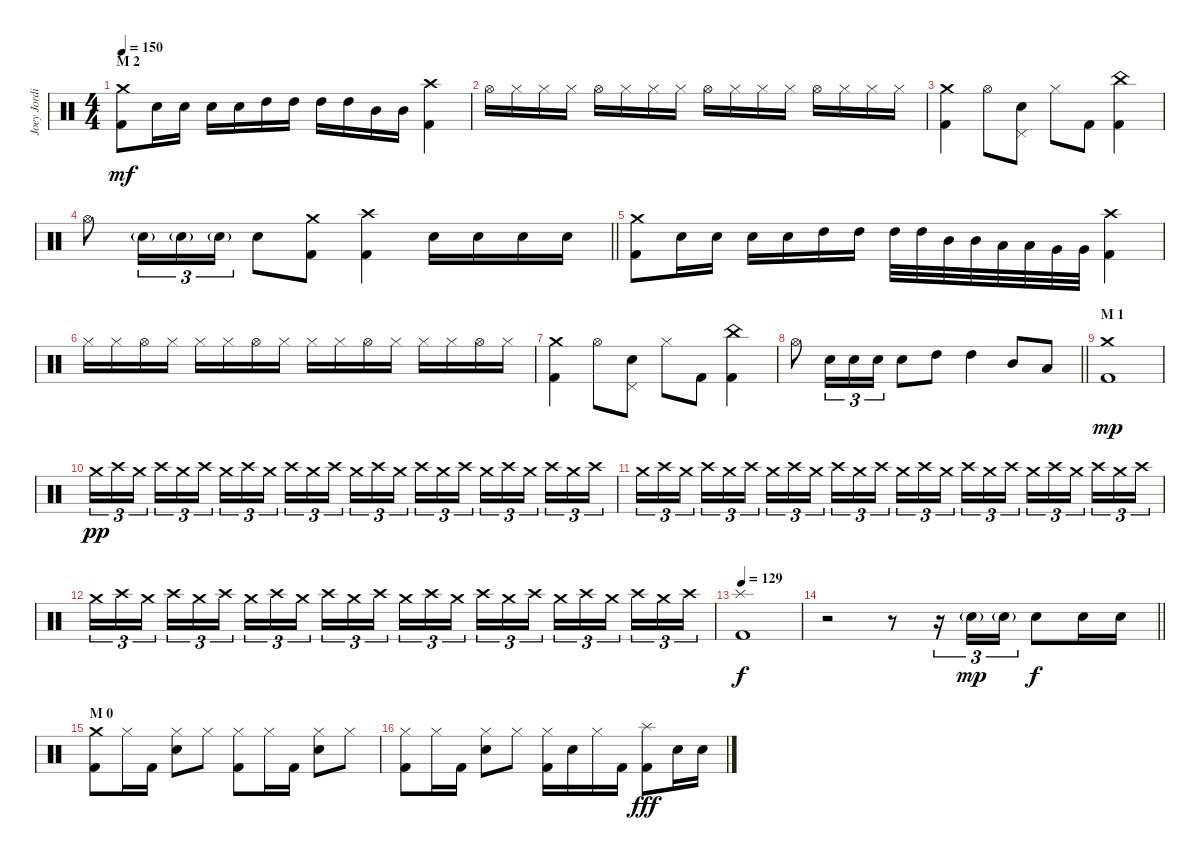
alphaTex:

\track ("Joey Jordison" "Joey Jordi") {instrument percussion}
\staff {score}
\articulation defaults
\ts (4 4)
\section ("" "M 2")
\tempo 150
\clef neutral
\ks c
("Crash medium (hit)" "Kick (hit) 2").8{dy mf} "Electric Snare (hit)".16 "Electric Snare (hit)".16 "Electric Snare (hit)".16 "Electric Snare (hit)".16 "High Tom (hit)".16 "High Tom (hit)".16 "High Tom (hit)".16 "High Tom (hit)".16 "Mid Tom (hit)".16 "Mid Tom (hit)".16 ("Crash high (hit)" "Kick (hit) 2").4 |
"Hi-Hat (open)".16 "Hi-Hat (closed)".16 "Hi-Hat (closed)".16 "Hi-Hat (closed)".16 "Hi-Hat (open)".16 "Hi-Hat (closed)".16 "Hi-Hat (closed)".16 "Hi-Hat (closed)".16 "Hi-Hat (open)".16 "Hi-Hat (closed)".16 "Hi-Hat (closed)".16 "Hi-Hat (closed)".16 "Hi-Hat (open)".16 "Hi-Hat (closed)".16 "Hi-Hat (closed)".16 "Hi-Hat (closed)".16 |
("Crash medium (hit)" "Kick (hit) 2").4 "Hi-Hat (open)".8 ("Electric Snare (hit)" "Pedal Hi-Hat (hit)").8 "Hi-Hat (closed)".8 "Kick (hit) 2".8 ("China (hit)" "Kick (hit) 2").4 |
\barLineRight lightlight "Hi-Hat (open)".8 "Electric Snare (hit)"{g}.16{tu (3 2)} "Electric Snare (hit)"{g}.16{tu (3 2)} "Electric Snare (hit)"{g}.16{tu (3 2)} "Electric Snare (hit)".8
("Crash medium (hit)" "Kick (hit) 2").8 ("Crash high (hit)" "Kick (hit) 2").4 "Electric Snare (hit)".16 "Electric Snare (hit)".16 "Electric Snare (hit)".16 "Electric Snare (hit)".16 |
("Crash medium (hit)" "Kick (hit) 2").8 "Electric Snare (hit)".16 "Electric Snare (hit)".16 "Electric Snare (hit)".16 "Electric Snare (hit)".16 "High Tom (hit)".16 "High Tom (hit)".16 "High Tom (hit)".32 "High Tom (hit)".32 "Mid Tom (hit)".32 "Mid Tom (hit)".32 "Low Tom (hit)".32 "Low Tom (hit)".32 "Very Low Tom (hit)".32 "Very Low Tom (hit)".32 ("Crash high (hit)" "Kick (hit) 2").4 |
"Hi-Hat (closed)".16 "Hi-Hat (closed)".16 "Hi-Hat (open)".16 "Hi-Hat (closed)".16 "Hi-Hat (closed)".16 "Hi-Hat (closed)".16 "Hi-Hat (open)".16 "Hi-Hat (closed)".16 "Hi-Hat (closed)".16 "Hi-Hat (closed)".16 "Hi-Hat (open)".16 "Hi-Hat (closed)".16 "Hi-Hat (closed)".16 "Hi-Hat (closed)".16 "Hi-Hat (open)".16 "Hi-Hat (closed)".16 |
("Crash medium (hit)" "Kick (hit) 2").4 "Hi-Hat (open)".8 ("Electric Snare (hit)" "Pedal Hi-Hat (hit)").8 "Hi-Hat (closed)".8 "Kick (hit) 2".8 ("China (hit)" "Kick (hit) 2").4 |
\barLineRight lightlight "Hi-Hat (open)".8 "Electric Snare (hit)".16{tu (3 2)} "Electric Snare (hit)".16{tu (3 2)} "Electric Snare (hit)".16{tu (3 2)} "Electric Snare (hit)".8 "High Tom (hit)".8 "High Tom (hit)".4 "Mid Tom (hit)".8 "Low Tom (hit)".8
|
\section ("" "M 1")
("Crash medium (hit)" "Kick (hit) 2").1{dy mp} |
"Crash medium (hit)".16{tu (3 2) dy pp volume 7} "Crash high (hit)".16{tu (3 2) volume 13} "Crash medium (hit)".16{tu (3 2) beam splitsecondary} "Crash high (hit)".16{tu (3 2)} "Crash medium (hit)".16{tu (3 2)} "Crash high (hit)".16{tu (3 2)} "Crash medium (hit)".16{tu (3 2)} "Crash high (hit)".16{tu (3 2)} "Crash medium (hit)".16{tu (3 2) beam splitsecondary} "Crash high (hit)".16{tu (3 2)} "Crash medium (hit)".16{tu (3 2)} "Crash high (hit)".16{tu (3 2)} "Crash medium (hit)".16{tu (3 2)} "Crash high (hit)".16{tu (3 2)} "Crash medium (hit)".16{tu (3 2) beam splitsecondary} "Crash high (hit)".16{tu (3 2)} "Crash medium (hit)".16{tu (3 2)} "Crash high (hit)".16{tu (3 2)} "Crash medium (hit)".16{tu (3 2)} "Crash high (hit)".16{tu (3 2)} "Crash medium (hit)".16{tu (3 2) beam splitsecondary} "Crash high (hit)".16{tu (3 2)} "Crash medium (hit)".16{tu (3 2)} "Crash high (hit)".16{tu (3 2)} |
"Crash medium (hit)".16{tu (3 2)} "Crash high (hit)".16{tu (3 2)} "Crash medium (hit)".16{tu (3 2) beam splitsecondary} "Crash high (hit)".16{tu (3 2)} "Crash medium (hit)".16{tu (3 2)} "Crash high (hit)".16{tu (3 2)} "Crash medium (hit)".16{tu (3 2)} "Crash high (hit)".16{tu (3 2)} "Crash medium (hit)".16{tu (3 2) beam splitsecondary} "Crash high (hit)".16{tu (3 2)} "Crash medium (hit)".16{tu (3 2)} "Crash high (hit)".16{tu (3 2)} "Crash medium (hit)".16{tu (3 2)} "Crash high (hit)".16{tu (3 2)} "Crash medium (hit)".16{tu (3 2) beam splitsecondary} "Crash high (hit)".16{tu (3 2)} "Crash medium (hit)".16{tu (3 2)} "Crash high (hit)".16{tu (3 2)} "Crash medium (hit)".16{tu (3 2)} "Crash high (hit)".16{tu (3 2)} "Crash medium (hit)".16{tu (3 2) beam splitsecondary} "Crash high (hit)".16{tu (3 2)} "Crash medium (hit)".16{tu (3 2)} "Crash high (hit)".16{tu (3 2)} |
"Crash medium (hit)".16{tu (3 2)} "Crash high (hit)".16{tu (3 2)} "Crash medium (hit)".16{tu (3 2) beam splitsecondary} "Crash high (hit)".16{tu (3 2)} "Crash medium (hit)".16{tu (3 2)} "Crash high (hit)".16{tu (3 2)} "Crash medium (hit)".16{tu (3 2)} "Crash high (hit)".16{tu (3 2)} "Crash medium (hit)".16{tu (3 2) beam splitsecondary} "Crash high (hit)".16{tu (3 2)} "Crash medium (hit)".16{tu (3 2)} "Crash high (hit)".16{tu (3 2)} "Crash medium (hit)".16{tu (3 2)} "Crash high (hit)".16{tu (3 2)} "Crash medium (hit)".16{tu (3 2) beam splitsecondary} "Crash high (hit)".16{tu (3 2)} "Crash medium (hit)".16{tu (3 2)} "Crash high (hit)".16{tu (3 2)} "Crash medium (hit)".16{tu (3 2)} "Crash high (hit)".16{tu (3 2)} "Crash medium (hit)".16{tu (3 2) beam splitsecondary} "Crash high (hit)".16{tu (3 2)} "Crash medium (hit)".16{tu (3 2)} "Crash high (hit)".16{tu (3 2)} |
\tempo 129
("Splash (hit)" "Kick (hit) 2").1{dy f} |
\barLineRight lightlight
r.2 r.8 r.16{tu (3 2)} "Electric Snare (hit)"{g}.16{tu (3 2) dy mp} "Electric Snare (hit)"{g}.16{tu (3 2)} "Electric Snare (hit)".8{dy f} "Electric Snare (hit)".16 "Electric Snare (hit)".16 |
\section ("" "M 0")
("Crash medium (hit)" "Kick (hit) 2").8 "Hi-Hat (closed)".16 "Kick (hit) 2".16 ("Hi-Hat (closed)" "Electric Snare (hit)").8 "Hi-Hat (closed)".8 ("Hi-Hat (closed)" "Kick (hit) 2").8 "Hi-Hat (closed)".16 "Kick (hit) 2".16 ("Hi-Hat (closed)" "Electric Snare (hit)").8 "Hi-Hat (closed)".8 |
("Hi-Hat (closed)" "Kick (hit) 2").8 "Hi-Hat (closed)".16 "Kick (hit) 2".16 ("Hi-Hat (closed)" "Electric Snare (hit)").8 "Hi-Hat (closed)".8 ("Hi-Hat (closed)" "Kick (hit) 2").16 "Electric Snare (hit)".16 "Hi-Hat (closed)".16 "Kick (hit) 2".16 ("Splash (hit)" "Kick (hit) 2").8{dy fff} "Electric Snare (hit)".16 "Electric Snare (hit)".16
